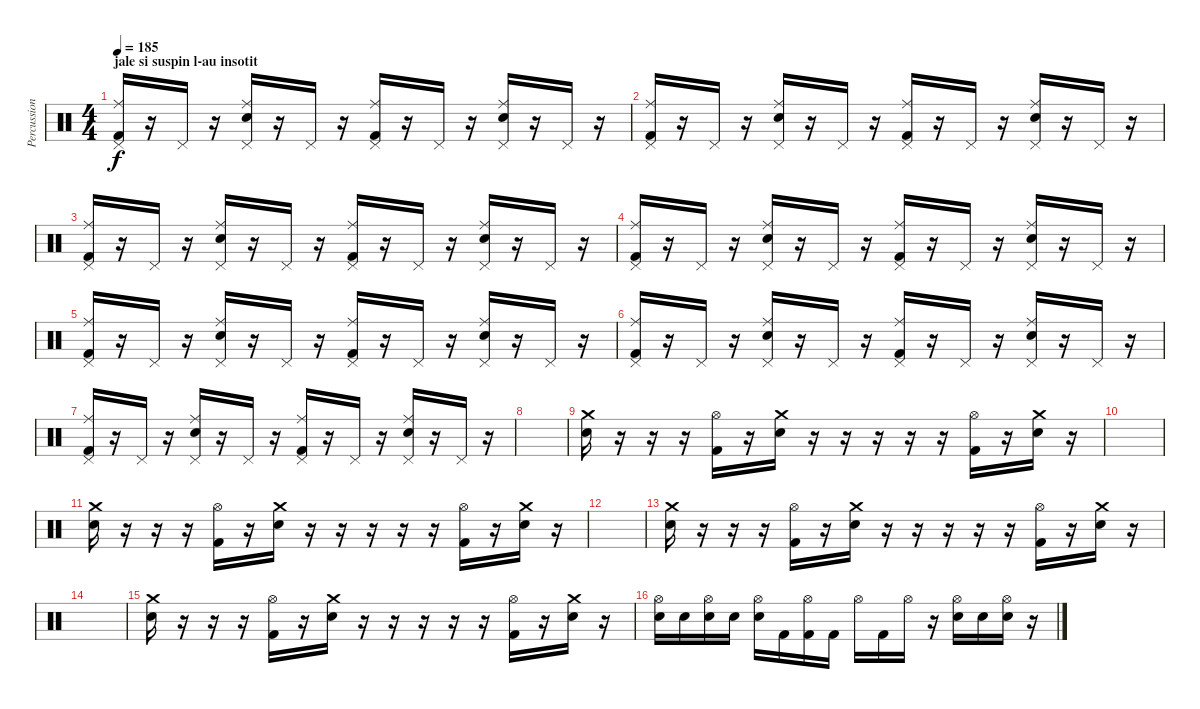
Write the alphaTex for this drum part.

\track ("Percussion" "Percussion") {instrument percussion}
\staff {score}
\articulation defaults
\ts (4 4)
\section ("" "jale si suspin l-au insotit")
\tempo 185
\clef neutral
\ks c
("Ride (middle)" "Pedal Hi-Hat (hit)" "Kick (hit) 2").16{dy f} r.16 "Pedal Hi-Hat (hit)".16 r.16 ("Ride (middle)" "Pedal Hi-Hat (hit)" "Snare (hit) 2").16 r.16 "Pedal Hi-Hat (hit)".16 r.16 ("Ride (middle)" "Pedal Hi-Hat (hit)" "Kick (hit) 2").16 r.16 "Pedal Hi-Hat (hit)".16 r.16 ("Ride (middle)" "Pedal Hi-Hat (hit)" "Snare (hit) 2").16 r.16 "Pedal Hi-Hat (hit)".16 r.16 |
("Ride (middle)" "Pedal Hi-Hat (hit)" "Kick (hit) 2").16 r.16 "Pedal Hi-Hat (hit)".16 r.16 ("Ride (middle)" "Pedal Hi-Hat (hit)" "Snare (hit) 2").16 r.16 "Pedal Hi-Hat (hit)".16 r.16 ("Ride (middle)" "Pedal Hi-Hat (hit)" "Kick (hit) 2").16 r.16 "Pedal Hi-Hat (hit)".16 r.16 ("Ride (middle)" "Pedal Hi-Hat (hit)" "Snare (hit) 2").16 r.16 "Pedal Hi-Hat (hit)".16 r.16 |
("Ride (middle)" "Pedal Hi-Hat (hit)" "Kick (hit) 2").16 r.16 "Pedal Hi-Hat (hit)".16 r.16 ("Ride (middle)" "Pedal Hi-Hat (hit)" "Snare (hit) 2").16 r.16 "Pedal Hi-Hat (hit)".16 r.16 ("Ride (middle)" "Pedal Hi-Hat (hit)" "Kick (hit) 2").16 r.16 "Pedal Hi-Hat (hit)".16 r.16 ("Ride (middle)" "Pedal Hi-Hat (hit)" "Snare (hit) 2").16 r.16 "Pedal Hi-Hat (hit)".16 r.16 |
("Ride (middle)" "Pedal Hi-Hat (hit)" "Kick (hit) 2").16 r.16 "Pedal Hi-Hat (hit)".16 r.16 ("Ride (middle)" "Pedal Hi-Hat (hit)" "Snare (hit) 2").16 r.16 "Pedal Hi-Hat (hit)".16 r.16 ("Ride (middle)" "Pedal Hi-Hat (hit)" "Kick (hit) 2").16 r.16 "Pedal Hi-Hat (hit)".16 r.16 ("Ride (middle)" "Pedal Hi-Hat (hit)" "Snare (hit) 2").16 r.16 "Pedal Hi-Hat (hit)".16 r.16 |
("Ride (middle)" "Pedal Hi-Hat (hit)" "Kick (hit) 2").16 r.16 "Pedal Hi-Hat (hit)".16 r.16 ("Ride (middle)" "Pedal Hi-Hat (hit)" "Snare (hit) 2").16 r.16 "Pedal Hi-Hat (hit)".16 r.16 ("Ride (middle)" "Pedal Hi-Hat (hit)" "Kick (hit) 2").16 r.16 "Pedal Hi-Hat (hit)".16 r.16 ("Ride (middle)" "Pedal Hi-Hat (hit)" "Snare (hit) 2").16 r.16 "Pedal Hi-Hat (hit)".16 r.16 |
("Ride (middle)" "Pedal Hi-Hat (hit)" "Kick (hit) 2").16 r.16 "Pedal Hi-Hat (hit)".16 r.16 ("Ride (middle)" "Pedal Hi-Hat (hit)" "Snare (hit) 2").16 r.16 "Pedal Hi-Hat (hit)".16 r.16 ("Ride (middle)" "Pedal Hi-Hat (hit)" "Kick (hit) 2").16 r.16 "Pedal Hi-Hat (hit)".16 r.16 ("Ride (middle)" "Pedal Hi-Hat (hit)" "Snare (hit) 2").16 r.16 "Pedal Hi-Hat (hit)".16 r.16 |
("Ride (middle)" "Pedal Hi-Hat (hit)" "Kick (hit) 2").16 r.16 "Pedal Hi-Hat (hit)".16 r.16 ("Ride (middle)" "Pedal Hi-Hat (hit)" "Snare (hit) 2").16 r.16 "Pedal Hi-Hat (hit)".16 r.16 ("Ride (middle)" "Pedal Hi-Hat (hit)" "Kick (hit) 2").16 r.16 "Pedal Hi-Hat (hit)".16 r.16 ("Ride (middle)" "Pedal Hi-Hat (hit)" "Snare (hit) 2").16 r.16 "Pedal Hi-Hat (hit)".16 r.16 |
|
("Crash medium (hit)" "Snare (hit) 2").16 r.16 r.16 r.16 ("Hi-Hat (open)" "Kick (hit) 2").16 r.16 ("Crash medium (hit)" "Snare (hit) 2").16 r.16 r.16 r.16 r.16 r.16 ("Hi-Hat (open)" "Kick (hit) 2").16 r.16 ("Snare (hit) 2" "Crash medium (hit)").16 r.16 |
|
("Crash medium (hit)" "Snare (hit) 2").16 r.16 r.16 r.16 ("Hi-Hat (open)" "Kick (hit) 2").16 r.16 ("Crash medium (hit)" "Snare (hit) 2").16 r.16 r.16 r.16 r.16 r.16 ("Hi-Hat (open)" "Kick (hit) 2").16 r.16 ("Snare (hit) 2" "Crash medium (hit)").16 r.16 |
|
("Crash medium (hit)" "Snare (hit) 2").16 r.16 r.16 r.16 ("Hi-Hat (open)" "Kick (hit) 2").16 r.16 ("Crash medium (hit)" "Snare (hit) 2").16 r.16 r.16 r.16 r.16 r.16 ("Hi-Hat (open)" "Kick (hit) 2").16 r.16 ("Snare (hit) 2" "Crash medium (hit)").16 r.16 |
|
("Crash medium (hit)" "Snare (hit) 2").16 r.16 r.16 r.16 ("Hi-Hat (open)" "Kick (hit) 2").16 r.16 ("Crash medium (hit)" "Snare (hit) 2").16 r.16 r.16 r.16 r.16 r.16 ("Hi-Hat (open)" "Kick (hit) 2").16 r.16 ("Snare (hit) 2" "Crash medium (hit)").16 r.16 |
("Hi-Hat (open)" "Snare (hit) 2").16 "Snare (hit) 2".16 ("Hi-Hat (open)" "Snare (hit) 2").16 "Snare (hit) 2".16 ("Hi-Hat (open)" "Snare (hit) 2").16 "Kick (hit) 2".16 ("Hi-Hat (open)" "Kick (hit) 2").16 "Kick (hit) 2".16 "Hi-Hat (open)".16 "Kick (hit) 2".16 "Hi-Hat (open)".16 r.16 ("Hi-Hat (open)" "Snare (hit) 2").16 "Snare (hit) 2".16 ("Hi-Hat (open)" "Snare (hit) 2").16 r.16
